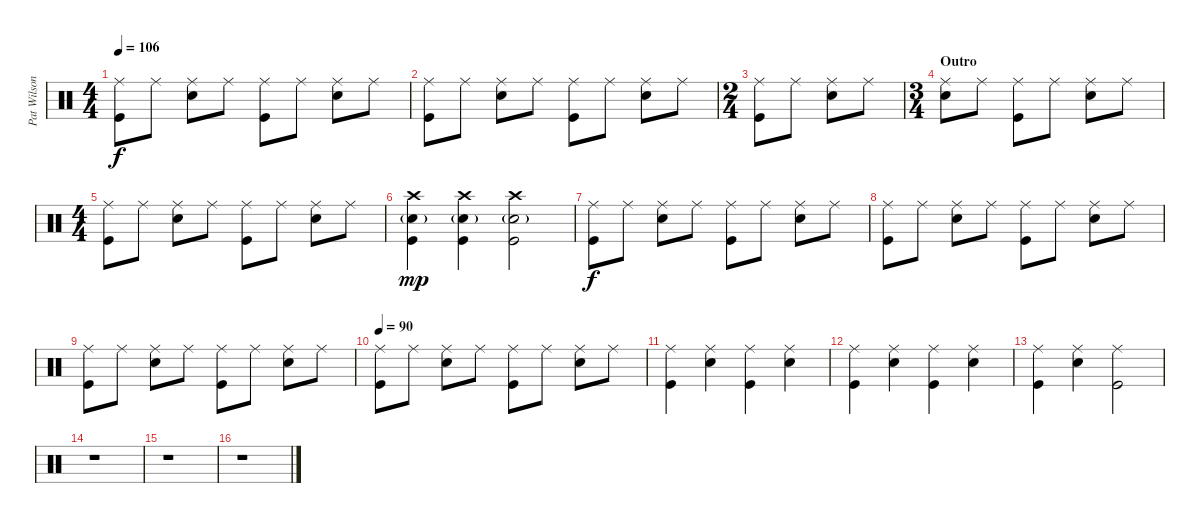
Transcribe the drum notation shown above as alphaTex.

\track ("Pat Wilson" "Pat Wilson") {instrument percussion}
\staff {score}
\articulation defaults
\ts (4 4)
\tempo 106
\clef neutral
\ks c
("Ride (middle)" "Kick (hit)").8{dy f} "Ride (middle)".8 ("Ride (middle)" "Snare (hit) 2").8 "Ride (middle)".8 ("Ride (middle)" "Kick (hit)").8 "Ride (middle)".8 ("Ride (middle)" "Snare (hit) 2").8 "Ride (middle)".8 |
("Ride (middle)" "Kick (hit)").8 "Ride (middle)".8 ("Ride (middle)" "Snare (hit) 2").8 "Ride (middle)".8 ("Ride (middle)" "Kick (hit)").8 "Ride (middle)".8 ("Ride (middle)" "Snare (hit) 2").8 "Ride (middle)".8 |
\ts (2 4)
("Ride (middle)" "Kick (hit)").8 "Ride (middle)".8 ("Ride (middle)" "Snare (hit) 2").8 "Ride (middle)".8 |
\ts (3 4)
\section ("" "Outro")
("Ride (middle)" "Snare (hit) 2").8 "Ride (middle)".8 ("Ride (middle)" "Kick (hit)").8 "Ride (middle)".8 ("Ride (middle)" "Snare (hit) 2").8 "Ride (middle)".8 |
\ts (4 4)
("Ride (middle)" "Kick (hit)").8 "Ride (middle)".8 ("Ride (middle)" "Snare (hit) 2").8 "Ride (middle)".8 ("Ride (middle)" "Kick (hit)").8 "Ride (middle)".8 ("Ride (middle)" "Snare (hit) 2").8 "Ride (middle)".8 |
("Crash high (hit)" "Snare (hit) 2"{g} "Kick (hit)").4{dy mp} ("Crash high (hit)" "Snare (hit) 2"{g} "Kick (hit)").4 ("Crash high (hit)" "Snare (hit) 2"{g} "Kick (hit)").2 |
("Ride (middle)" "Kick (hit)").8{dy f} "Ride (middle)".8 ("Ride (middle)" "Snare (hit) 2").8 "Ride (middle)".8 ("Ride (middle)" "Kick (hit)").8 "Ride (middle)".8 ("Ride (middle)" "Snare (hit) 2").8 "Ride (middle)".8 |
("Ride (middle)" "Kick (hit)").8 "Ride (middle)".8 ("Ride (middle)" "Snare (hit) 2").8 "Ride (middle)".8 ("Ride (middle)" "Kick (hit)").8 "Ride (middle)".8 ("Ride (middle)" "Snare (hit) 2").8 "Ride (middle)".8 |
("Ride (middle)" "Kick (hit)").8 "Ride (middle)".8 ("Ride (middle)" "Snare (hit) 2").8 "Ride (middle)".8 ("Ride (middle)" "Kick (hit)").8 "Ride (middle)".8 ("Ride (middle)" "Snare (hit) 2").8 "Ride (middle)".8 |
\tempo 90
("Ride (middle)" "Kick (hit)").8 "Ride (middle)".8 ("Ride (middle)" "Snare (hit) 2").8 "Ride (middle)".8 ("Ride (middle)" "Kick (hit)").8 "Ride (middle)".8 ("Ride (middle)" "Snare (hit) 2").8 "Ride (middle)".8 |
("Ride (middle)" "Kick (hit)").4 ("Ride (middle)" "Snare (hit) 2").4 ("Ride (middle)" "Kick (hit)").4 ("Ride (middle)" "Snare (hit) 2").4 |
("Ride (middle)" "Kick (hit)").4 ("Ride (middle)" "Snare (hit) 2").4 ("Ride (middle)" "Kick (hit)").4 ("Ride (middle)" "Snare (hit) 2").4 |
("Ride (middle)" "Kick (hit)").4 ("Ride (middle)" "Snare (hit) 2").4 ("Ride (middle)" "Kick (hit)").2 |
r.1 |
r.1 |
r.1
